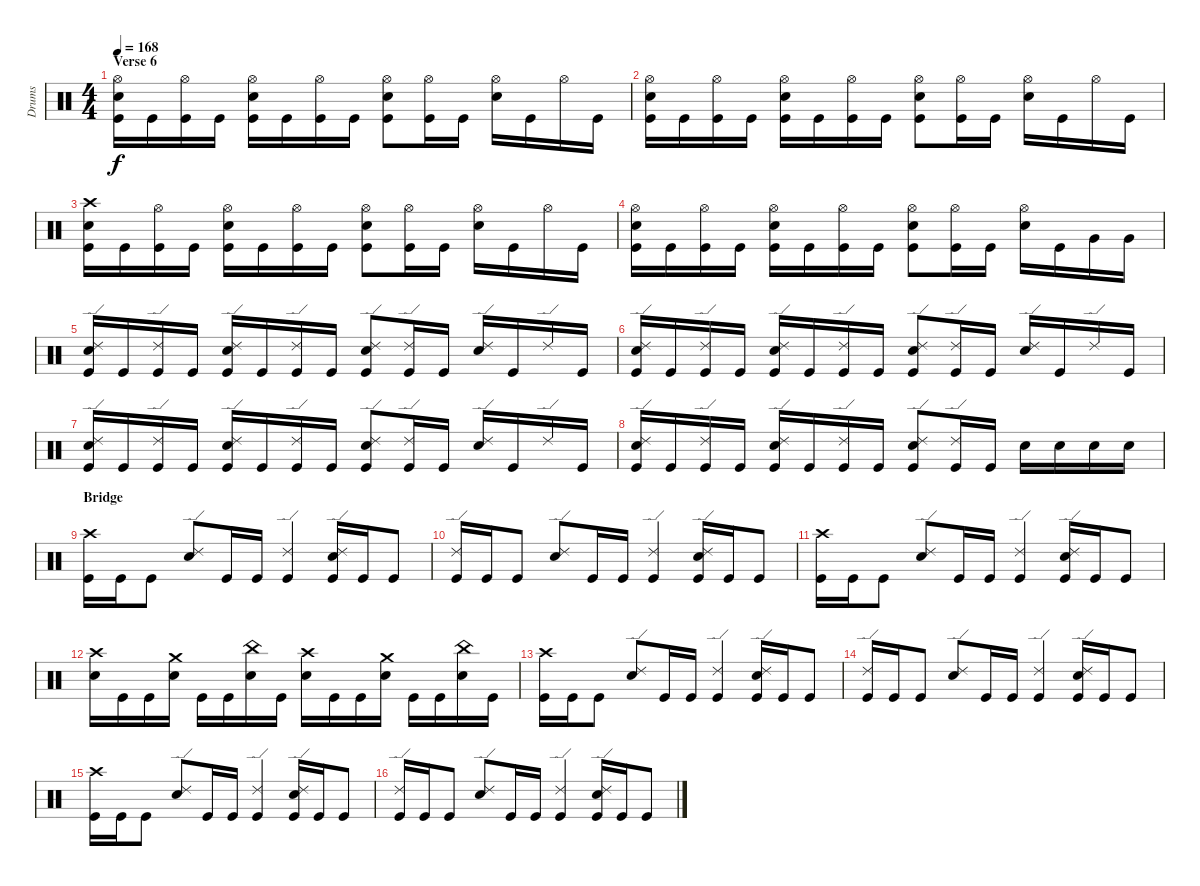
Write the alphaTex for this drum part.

\track ("Drums" "Drums") {instrument percussion}
\staff {score}
\articulation defaults
\ts (4 4)
\section ("" "Verse 6")
\tempo 168
\clef neutral
\ks c
("Hi-Hat (open)" "Electric Snare (hit)" "Kick (hit)").16{dy f} "Kick (hit)".16 ("Hi-Hat (open)" "Kick (hit)").16 "Kick (hit)".16 ("Hi-Hat (open)" "Electric Snare (hit)" "Kick (hit)").16 "Kick (hit)".16 ("Hi-Hat (open)" "Kick (hit)").16 "Kick (hit)".16 ("Hi-Hat (open)" "Electric Snare (hit)" "Kick (hit)").8 ("Hi-Hat (open)" "Kick (hit)").16 "Kick (hit)".16 ("Hi-Hat (open)" "Electric Snare (hit)").16 "Kick (hit)".16 "Hi-Hat (open)".16 "Kick (hit)".16 |
("Hi-Hat (open)" "Electric Snare (hit)" "Kick (hit)").16 "Kick (hit)".16 ("Hi-Hat (open)" "Kick (hit)").16 "Kick (hit)".16 ("Hi-Hat (open)" "Electric Snare (hit)" "Kick (hit)").16 "Kick (hit)".16 ("Hi-Hat (open)" "Kick (hit)").16 "Kick (hit)".16 ("Hi-Hat (open)" "Electric Snare (hit)" "Kick (hit)").8 ("Hi-Hat (open)" "Kick (hit)").16 "Kick (hit)".16 ("Hi-Hat (open)" "Electric Snare (hit)").16 "Kick (hit)".16 "Hi-Hat (open)".16 "Kick (hit)".16 |
("Crash high (hit)" "Electric Snare (hit)" "Kick (hit)").16 "Kick (hit)".16 ("Hi-Hat (open)" "Kick (hit)").16 "Kick (hit)".16 ("Hi-Hat (open)" "Electric Snare (hit)" "Kick (hit)").16 "Kick (hit)".16 ("Hi-Hat (open)" "Kick (hit)").16 "Kick (hit)".16 ("Hi-Hat (open)" "Electric Snare (hit)" "Kick (hit)").8 ("Hi-Hat (open)" "Kick (hit)").16 "Kick (hit)".16 ("Hi-Hat (open)" "Electric Snare (hit)").16 "Kick (hit)".16 "Hi-Hat (open)".16 "Kick (hit)".16 |
("Hi-Hat (open)" "Electric Snare (hit)" "Kick (hit)").16 "Kick (hit)".16 ("Hi-Hat (open)" "Kick (hit)").16 "Kick (hit)".16 ("Hi-Hat (open)" "Electric Snare (hit)" "Kick (hit)").16 "Kick (hit)".16 ("Hi-Hat (open)" "Kick (hit)").16 "Kick (hit)".16 ("Hi-Hat (open)" "Electric Snare (hit)" "Kick (hit)").8 ("Hi-Hat (open)" "Kick (hit)").16 "Kick (hit)".16 ("Hi-Hat (open)" "Electric Snare (hit)").16 "Kick (hit)".16 "Very Low Tom (hit)".16 "Very Low Tom (hit)".16 |
("Ride (edge) 2" "Electric Snare (hit)" "Kick (hit)").16 "Kick (hit)".16 ("Ride (edge) 2" "Kick (hit)").16 "Kick (hit)".16 ("Ride (edge) 2" "Electric Snare (hit)" "Kick (hit)").16 "Kick (hit)".16 ("Ride (edge) 2" "Kick (hit)").16 "Kick (hit)".16 ("Ride (edge) 2" "Electric Snare (hit)" "Kick (hit)").8 ("Ride (edge) 2" "Kick (hit)").16 "Kick (hit)".16 ("Ride (edge) 2" "Electric Snare (hit)").16 "Kick (hit)".16 "Ride (edge) 2".16 "Kick (hit)".16 |
("Ride (edge) 2" "Electric Snare (hit)" "Kick (hit)").16 "Kick (hit)".16 ("Ride (edge) 2" "Kick (hit)").16 "Kick (hit)".16 ("Ride (edge) 2" "Electric Snare (hit)" "Kick (hit)").16 "Kick (hit)".16 ("Ride (edge) 2" "Kick (hit)").16 "Kick (hit)".16 ("Ride (edge) 2" "Electric Snare (hit)" "Kick (hit)").8 ("Ride (edge) 2" "Kick (hit)").16 "Kick (hit)".16 ("Ride (edge) 2" "Electric Snare (hit)").16 "Kick (hit)".16 "Ride (edge) 2".16 "Kick (hit)".16 |
("Ride (edge) 2" "Electric Snare (hit)" "Kick (hit)").16 "Kick (hit)".16 ("Ride (edge) 2" "Kick (hit)").16 "Kick (hit)".16 ("Ride (edge) 2" "Electric Snare (hit)" "Kick (hit)").16 "Kick (hit)".16 ("Ride (edge) 2" "Kick (hit)").16 "Kick (hit)".16 ("Ride (edge) 2" "Electric Snare (hit)" "Kick (hit)").8 ("Ride (edge) 2" "Kick (hit)").16 "Kick (hit)".16 ("Ride (edge) 2" "Electric Snare (hit)").16 "Kick (hit)".16 "Ride (edge) 2".16 "Kick (hit)".16 |
("Ride (edge) 2" "Electric Snare (hit)" "Kick (hit)").16 "Kick (hit)".16 ("Ride (edge) 2" "Kick (hit)").16 "Kick (hit)".16 ("Ride (edge) 2" "Electric Snare (hit)" "Kick (hit)").16 "Kick (hit)".16 ("Ride (edge) 2" "Kick (hit)").16 "Kick (hit)".16 ("Ride (edge) 2" "Electric Snare (hit)" "Kick (hit)").8 ("Ride (edge) 2" "Kick (hit)").16 "Kick (hit)".16 "Electric Snare (hit)".16 "Electric Snare (hit)".16 "Electric Snare (hit)".16 "Electric Snare (hit)".16 |
\section ("" "Bridge")
("Crash high (hit)" "Kick (hit)").16 "Kick (hit)".16 "Kick (hit)".8 ("Ride (edge) 2" "Electric Snare (hit)").8 "Kick (hit)".16 "Kick (hit)".16 ("Ride (edge) 2" "Kick (hit)").4 ("Ride (edge) 2" "Electric Snare (hit)" "Kick (hit)").16 "Kick (hit)".16 "Kick (hit)".8 |
("Ride (edge) 2" "Kick (hit)").16 "Kick (hit)".16 "Kick (hit)".8 ("Ride (edge) 2" "Electric Snare (hit)").8 "Kick (hit)".16 "Kick (hit)".16 ("Ride (edge) 2" "Kick (hit)").4 ("Ride (edge) 2" "Electric Snare (hit)" "Kick (hit)").16 "Kick (hit)".16 "Kick (hit)".8 |
("Crash high (hit)" "Kick (hit)").16 "Kick (hit)".16 "Kick (hit)".8 ("Ride (edge) 2" "Electric Snare (hit)").8 "Kick (hit)".16 "Kick (hit)".16 ("Ride (edge) 2" "Kick (hit)").4 ("Ride (edge) 2" "Electric Snare (hit)" "Kick (hit)").16 "Kick (hit)".16 "Kick (hit)".8 |
("Crash high (hit)" "Electric Snare (hit)").16 "Kick (hit)".16 "Kick (hit)".16 ("Crash medium (hit)" "Electric Snare (hit)").16 "Kick (hit)".16 "Kick (hit)".16 ("China (hit)" "Electric Snare (hit)").16 "Kick (hit)".16 ("Crash high (hit)" "Electric Snare (hit)").16 "Kick (hit)".16 "Kick (hit)".16 ("Crash medium (hit)" "Electric Snare (hit)").16 "Kick (hit)".16 "Kick (hit)".16 ("China (hit)" "Electric Snare (hit)").16 "Kick (hit)".16 |
("Crash high (hit)" "Kick (hit)").16 "Kick (hit)".16 "Kick (hit)".8 ("Ride (edge) 2" "Electric Snare (hit)").8 "Kick (hit)".16 "Kick (hit)".16 ("Ride (edge) 2" "Kick (hit)").4 ("Ride (edge) 2" "Electric Snare (hit)" "Kick (hit)").16 "Kick (hit)".16 "Kick (hit)".8 |
("Ride (edge) 2" "Kick (hit)").16 "Kick (hit)".16 "Kick (hit)".8 ("Ride (edge) 2" "Electric Snare (hit)").8 "Kick (hit)".16 "Kick (hit)".16 ("Ride (edge) 2" "Kick (hit)").4 ("Ride (edge) 2" "Electric Snare (hit)" "Kick (hit)").16 "Kick (hit)".16 "Kick (hit)".8 |
("Crash high (hit)" "Kick (hit)").16 "Kick (hit)".16 "Kick (hit)".8 ("Ride (edge) 2" "Electric Snare (hit)").8 "Kick (hit)".16 "Kick (hit)".16 ("Ride (edge) 2" "Kick (hit)").4 ("Ride (edge) 2" "Electric Snare (hit)" "Kick (hit)").16 "Kick (hit)".16 "Kick (hit)".8 |
("Ride (edge) 2" "Kick (hit)").16 "Kick (hit)".16 "Kick (hit)".8 ("Ride (edge) 2" "Electric Snare (hit)").8 "Kick (hit)".16 "Kick (hit)".16 ("Ride (edge) 2" "Kick (hit)").4 ("Ride (edge) 2" "Electric Snare (hit)" "Kick (hit)").16 "Kick (hit)".16 "Kick (hit)".8
